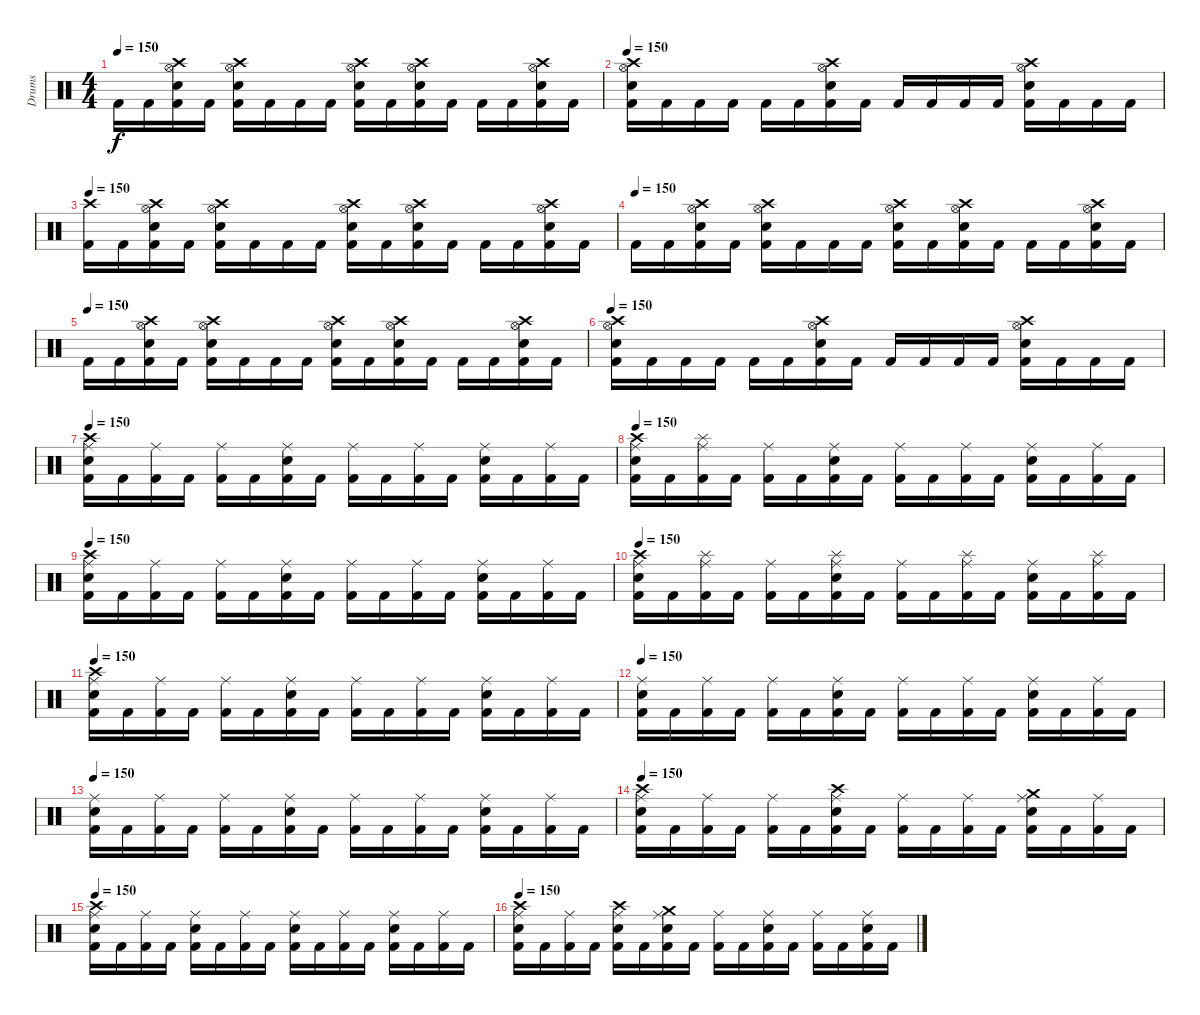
\track ("Drums" "Drums") {instrument percussion}
\staff {score}
\articulation defaults
\ts (4 4)
\tempo 150
\clef neutral
\ks c "Kick (hit) 2".16{dy f} "Kick (hit) 2".16
("Kick (hit) 2" "Electric Snare (hit)" "Hi-Hat (open)" "Crash high (hit)").16 "Kick (hit) 2".16 ("Kick (hit) 2" "Electric Snare (hit)" "Hi-Hat (open)" "Crash high (hit)").16 "Kick (hit) 2".16 "Kick (hit) 2".16 "Kick (hit) 2".16 ("Kick (hit) 2" "Electric Snare (hit)" "Hi-Hat (open)" "Crash high (hit)").16 "Kick (hit) 2".16 ("Kick (hit) 2" "Electric Snare (hit)" "Hi-Hat (open)" "Crash high (hit)").16 "Kick (hit) 2".16 "Kick (hit) 2".16 "Kick (hit) 2".16 ("Kick (hit) 2" "Electric Snare (hit)" "Hi-Hat (open)" "Crash high (hit)").16 "Kick (hit) 2".16 |
\tempo 150
("Kick (hit) 2" "Electric Snare (hit)" "Hi-Hat (open)" "Crash high (hit)").16 "Kick (hit) 2".16 "Kick (hit) 2".16 "Kick (hit) 2".16 "Kick (hit) 2".16 "Kick (hit) 2".16 ("Kick (hit) 2" "Electric Snare (hit)" "Hi-Hat (open)" "Crash high (hit)").16 "Kick (hit) 2".16 "Kick (hit) 2".16 "Kick (hit) 2".16 "Kick (hit) 2".16 "Kick (hit) 2".16 ("Kick (hit) 2" "Electric Snare (hit)" "Hi-Hat (open)" "Crash high (hit)").16 "Kick (hit) 2".16 "Kick (hit) 2".16 "Kick (hit) 2".16 |
\tempo 150
("Kick (hit) 2" "Crash high (hit)").16 "Kick (hit) 2".16 ("Kick (hit) 2" "Electric Snare (hit)" "Hi-Hat (open)" "Crash high (hit)").16 "Kick (hit) 2".16 ("Kick (hit) 2" "Electric Snare (hit)" "Hi-Hat (open)" "Crash high (hit)").16 "Kick (hit) 2".16 "Kick (hit) 2".16 "Kick (hit) 2".16 ("Kick (hit) 2" "Electric Snare (hit)" "Hi-Hat (open)" "Crash high (hit)").16 "Kick (hit) 2".16 ("Kick (hit) 2" "Electric Snare (hit)" "Hi-Hat (open)" "Crash high (hit)").16 "Kick (hit) 2".16 "Kick (hit) 2".16 "Kick (hit) 2".16 ("Kick (hit) 2" "Electric Snare (hit)" "Hi-Hat (open)" "Crash high (hit)").16 "Kick (hit) 2".16 |
\tempo (150)
"Kick (hit) 2".16 "Kick (hit) 2".16 ("Kick (hit) 2" "Electric Snare (hit)" "Hi-Hat (open)" "Crash high (hit)").16 "Kick (hit) 2".16 ("Kick (hit) 2" "Electric Snare (hit)" "Hi-Hat (open)" "Crash high (hit)").16 "Kick (hit) 2".16 "Kick (hit) 2".16 "Kick (hit) 2".16 ("Kick (hit) 2" "Electric Snare (hit)" "Hi-Hat (open)" "Crash high (hit)").16 "Kick (hit) 2".16 ("Kick (hit) 2" "Electric Snare (hit)" "Hi-Hat (open)" "Crash high (hit)").16 "Kick (hit) 2".16 "Kick (hit) 2".16 "Kick (hit) 2".16 ("Kick (hit) 2" "Electric Snare (hit)" "Hi-Hat (open)" "Crash high (hit)").16 "Kick (hit) 2".16 |
\tempo (150)
"Kick (hit) 2".16 "Kick (hit) 2".16 ("Kick (hit) 2" "Electric Snare (hit)" "Hi-Hat (open)" "Crash high (hit)").16 "Kick (hit) 2".16 ("Kick (hit) 2" "Electric Snare (hit)" "Hi-Hat (open)" "Crash high (hit)").16 "Kick (hit) 2".16 "Kick (hit) 2".16 "Kick (hit) 2".16 ("Kick (hit) 2" "Electric Snare (hit)" "Hi-Hat (open)" "Crash high (hit)").16 "Kick (hit) 2".16 ("Kick (hit) 2" "Electric Snare (hit)" "Hi-Hat (open)" "Crash high (hit)").16 "Kick (hit) 2".16 "Kick (hit) 2".16 "Kick (hit) 2".16 ("Kick (hit) 2" "Electric Snare (hit)" "Hi-Hat (open)" "Crash high (hit)").16 "Kick (hit) 2".16 |
\tempo 150
("Kick (hit) 2" "Electric Snare (hit)" "Hi-Hat (open)" "Crash high (hit)").16 "Kick (hit) 2".16 "Kick (hit) 2".16 "Kick (hit) 2".16 "Kick (hit) 2".16 "Kick (hit) 2".16 ("Kick (hit) 2" "Electric Snare (hit)" "Hi-Hat (open)" "Crash high (hit)").16 "Kick (hit) 2".16 "Kick (hit) 2".16 "Kick (hit) 2".16 "Kick (hit) 2".16 "Kick (hit) 2".16 ("Kick (hit) 2" "Electric Snare (hit)" "Hi-Hat (open)" "Crash high (hit)").16 "Kick (hit) 2".16 "Kick (hit) 2".16 "Kick (hit) 2".16 |
\tempo 150
("Kick (hit) 2" "Electric Snare (hit)" "Ride (middle)" "Crash high (hit)").16 "Kick (hit) 2".16 ("Kick (hit) 2" "Ride (middle)").16 "Kick (hit) 2".16 ("Kick (hit) 2" "Ride (middle)").16 "Kick (hit) 2".16 ("Kick (hit) 2" "Electric Snare (hit)" "Ride (middle)").16 "Kick (hit) 2".16 ("Kick (hit) 2" "Ride (middle)").16 "Kick (hit) 2".16 ("Kick (hit) 2" "Ride (middle)").16 "Kick (hit) 2".16 ("Kick (hit) 2" "Electric Snare (hit)" "Ride (middle)").16 "Kick (hit) 2".16 ("Kick (hit) 2" "Ride (middle)").16 "Kick (hit) 2".16 |
\tempo 150
("Kick (hit) 2" "Electric Snare (hit)" "Ride (middle)" "Crash high (hit)").16 "Kick (hit) 2".16 ("Kick (hit) 2" "Ride (middle)" "Splash (hit)").16 "Kick (hit) 2".16 ("Kick (hit) 2" "Ride (middle)").16 "Kick (hit) 2".16 ("Kick (hit) 2" "Electric Snare (hit)" "Ride (middle)").16 "Kick (hit) 2".16 ("Kick (hit) 2" "Ride (middle)").16 "Kick (hit) 2".16 ("Kick (hit) 2" "Ride (middle)").16 "Kick (hit) 2".16 ("Kick (hit) 2" "Electric Snare (hit)" "Ride (middle)").16 "Kick (hit) 2".16 ("Kick (hit) 2" "Ride (middle)").16 "Kick (hit) 2".16 |
\tempo 150
("Kick (hit) 2" "Electric Snare (hit)" "Ride (middle)" "Crash high (hit)").16 "Kick (hit) 2".16 ("Kick (hit) 2" "Ride (middle)").16 "Kick (hit) 2".16 ("Kick (hit) 2" "Ride (middle)").16 "Kick (hit) 2".16 ("Kick (hit) 2" "Electric Snare (hit)" "Ride (middle)").16 "Kick (hit) 2".16 ("Kick (hit) 2" "Ride (middle)").16 "Kick (hit) 2".16 ("Kick (hit) 2" "Ride (middle)").16 "Kick (hit) 2".16 ("Kick (hit) 2" "Electric Snare (hit)" "Ride (middle)").16 "Kick (hit) 2".16 ("Kick (hit) 2" "Ride (middle)").16 "Kick (hit) 2".16 |
\tempo 150
("Kick (hit) 2" "Electric Snare (hit)" "Ride (middle)" "Crash high (hit)").16 "Kick (hit) 2".16 ("Kick (hit) 2" "Ride (middle)" "Splash (hit)").16 "Kick (hit) 2".16 ("Kick (hit) 2" "Ride (middle)").16 "Kick (hit) 2".16 ("Kick (hit) 2" "Electric Snare (hit)" "Ride (middle)" "Splash (hit)").16 "Kick (hit) 2".16 ("Kick (hit) 2" "Ride (middle)").16 "Kick (hit) 2".16 ("Kick (hit) 2" "Ride (middle)" "Splash (hit)").16 "Kick (hit) 2".16 ("Kick (hit) 2" "Electric Snare (hit)" "Ride (middle)").16 "Kick (hit) 2".16 ("Kick (hit) 2" "Ride (middle)" "Splash (hit)").16 "Kick (hit) 2".16 |
\tempo 150
("Kick (hit) 2" "Electric Snare (hit)" "Ride (middle)" "Crash high (hit)").16 "Kick (hit) 2".16 ("Kick (hit) 2" "Ride (middle)").16 "Kick (hit) 2".16 ("Kick (hit) 2" "Ride (middle)").16 "Kick (hit) 2".16 ("Kick (hit) 2" "Electric Snare (hit)" "Ride (middle)").16 "Kick (hit) 2".16 ("Kick (hit) 2" "Ride (middle)").16 "Kick (hit) 2".16 ("Kick (hit) 2" "Ride (middle)").16 "Kick (hit) 2".16 ("Kick (hit) 2" "Electric Snare (hit)" "Ride (middle)").16 "Kick (hit) 2".16 ("Kick (hit) 2" "Ride (middle)").16 "Kick (hit) 2".16 |
\tempo 150
("Kick (hit) 2" "Electric Snare (hit)" "Ride (middle)").16 "Kick (hit) 2".16 ("Kick (hit) 2" "Ride (middle)").16 "Kick (hit) 2".16 ("Kick (hit) 2" "Ride (middle)").16 "Kick (hit) 2".16 ("Kick (hit) 2" "Electric Snare (hit)" "Ride (middle)").16 "Kick (hit) 2".16 ("Kick (hit) 2" "Ride (middle)").16 "Kick (hit) 2".16 ("Kick (hit) 2" "Ride (middle)").16 "Kick (hit) 2".16 ("Kick (hit) 2" "Electric Snare (hit)" "Ride (middle)").16 "Kick (hit) 2".16 ("Kick (hit) 2" "Ride (middle)").16 "Kick (hit) 2".16 |
\tempo 150
("Kick (hit) 2" "Electric Snare (hit)" "Ride (middle)").16 "Kick (hit) 2".16 ("Kick (hit) 2" "Ride (middle)").16 "Kick (hit) 2".16 ("Kick (hit) 2" "Ride (middle)").16 "Kick (hit) 2".16 ("Kick (hit) 2" "Electric Snare (hit)" "Ride (middle)").16 "Kick (hit) 2".16 ("Kick (hit) 2" "Ride (middle)").16 "Kick (hit) 2".16 ("Kick (hit) 2" "Ride (middle)").16 "Kick (hit) 2".16 ("Kick (hit) 2" "Electric Snare (hit)" "Ride (middle)").16 "Kick (hit) 2".16 ("Kick (hit) 2" "Ride (middle)").16 "Kick (hit) 2".16 |
\tempo 150
("Kick (hit) 2" "Electric Snare (hit)" "Ride (middle)" "Crash high (hit)").16 "Kick (hit) 2".16 ("Kick (hit) 2" "Ride (middle)").16 "Kick (hit) 2".16 ("Kick (hit) 2" "Ride (middle)").16 "Kick (hit) 2".16 ("Kick (hit) 2" "Electric Snare (hit)" "Ride (middle)" "Crash high (hit)").16 "Kick (hit) 2".16 ("Kick (hit) 2" "Ride (middle)").16 "Kick (hit) 2".16 ("Kick (hit) 2" "Ride (middle)").16 "Kick (hit) 2".16 ("Kick (hit) 2" "Electric Snare (hit)" "Ride (middle)" "Crash medium (hit)").16 "Kick (hit) 2".16 ("Kick (hit) 2" "Ride (middle)").16 "Kick (hit) 2".16 |
\tempo 150
("Kick (hit) 2" "Electric Snare (hit)" "Ride (middle)" "Crash high (hit)").16 "Kick (hit) 2".16 ("Kick (hit) 2" "Ride (middle)").16 "Kick (hit) 2".16 ("Kick (hit) 2" "Electric Snare (hit)" "Ride (middle)").16 "Kick (hit) 2".16 ("Kick (hit) 2" "Ride (middle)").16 "Kick (hit) 2".16 ("Kick (hit) 2" "Electric Snare (hit)" "Ride (middle)").16 "Kick (hit) 2".16 ("Kick (hit) 2" "Ride (middle)").16 "Kick (hit) 2".16 ("Kick (hit) 2" "Electric Snare (hit)" "Ride (middle)").16 "Kick (hit) 2".16 ("Kick (hit) 2" "Ride (middle)").16 "Kick (hit) 2".16 |
\tempo 150
("Kick (hit) 2" "Electric Snare (hit)" "Ride (middle)" "Crash high (hit)").16 "Kick (hit) 2".16 ("Kick (hit) 2" "Ride (middle)").16 "Kick (hit) 2".16 ("Kick (hit) 2" "Electric Snare (hit)" "Ride (middle)" "Crash high (hit)").16 "Kick (hit) 2".16 ("Kick (hit) 2" "Electric Snare (hit)" "Ride (middle)" "Crash medium (hit)").16 "Kick (hit) 2".16 ("Kick (hit) 2" "Ride (middle)").16 "Kick (hit) 2".16 ("Kick (hit) 2" "Electric Snare (hit)" "Ride (middle)").16 "Kick (hit) 2".16 ("Kick (hit) 2" "Ride (middle)").16 "Kick (hit) 2".16 ("Kick (hit) 2" "Electric Snare (hit)" "Ride (middle)").16 "Kick (hit) 2".16
